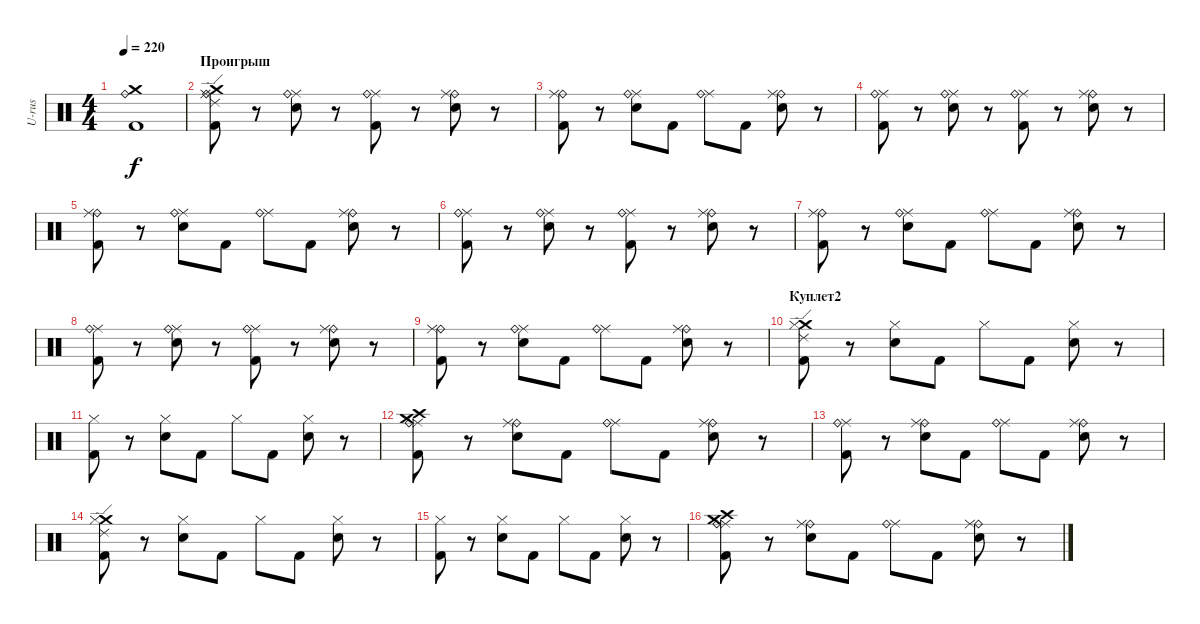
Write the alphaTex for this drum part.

\track ("U-rus" "U-rus") {instrument percussion}
\staff {score}
\articulation defaults
\ts (4 4)
\tempo 220
\clef neutral
\ks c
("Crash medium (hit)" "Ride (bell)" "Kick (hit) 2").1{dy f} |
\section ("" "Проигрыш")
("Ride (edge) 2" "Ride (middle)" "Crash medium (hit)" "Ride (bell)" "Kick (hit) 2").8 r.8 ("Ride (middle)" "Ride (bell)" "Snare (hit) 2").8 r.8 ("Ride (middle)" "Ride (bell)" "Kick (hit) 2").8 r.8 ("Ride (bell)" "Ride (middle)" "Snare (hit) 2").8 r.8 |
("Ride (bell)" "Ride (middle)" "Kick (hit) 2").8 r.8 ("Ride (middle)" "Ride (bell)" "Snare (hit) 2").8 "Kick (hit) 2".8 ("Ride (middle)" "Ride (bell)").8 "Kick (hit) 2".8 ("Ride (bell)" "Ride (middle)" "Snare (hit) 2").8 r.8 |
("Ride (middle)" "Ride (bell)" "Kick (hit) 2").8 r.8 ("Ride (middle)" "Ride (bell)" "Snare (hit) 2").8 r.8 ("Ride (middle)" "Ride (bell)" "Kick (hit) 2").8 r.8 ("Ride (bell)" "Ride (middle)" "Snare (hit) 2").8 r.8 |
("Ride (bell)" "Ride (middle)" "Kick (hit) 2").8 r.8 ("Ride (middle)" "Ride (bell)" "Snare (hit) 2").8 "Kick (hit) 2".8 ("Ride (middle)" "Ride (bell)").8 "Kick (hit) 2".8 ("Ride (bell)" "Ride (middle)" "Snare (hit) 2").8 r.8 |
("Ride (middle)" "Ride (bell)" "Kick (hit) 2").8 r.8 ("Ride (middle)" "Ride (bell)" "Snare (hit) 2").8 r.8 ("Ride (middle)" "Ride (bell)" "Kick (hit) 2").8 r.8 ("Ride (bell)" "Ride (middle)" "Snare (hit) 2").8 r.8 |
("Ride (bell)" "Ride (middle)" "Kick (hit) 2").8 r.8 ("Ride (middle)" "Ride (bell)" "Snare (hit) 2").8 "Kick (hit) 2".8 ("Ride (middle)" "Ride (bell)").8 "Kick (hit) 2".8 ("Ride (bell)" "Ride (middle)" "Snare (hit) 2").8 r.8 |
("Ride (middle)" "Ride (bell)" "Kick (hit) 2").8 r.8 ("Ride (middle)" "Ride (bell)" "Snare (hit) 2").8 r.8 ("Ride (middle)" "Ride (bell)" "Kick (hit) 2").8 r.8 ("Ride (bell)" "Ride (middle)" "Snare (hit) 2").8 r.8 |
("Ride (bell)" "Ride (middle)" "Kick (hit) 2").8 r.8 ("Ride (middle)" "Ride (bell)" "Snare (hit) 2").8 "Kick (hit) 2".8 ("Ride (middle)" "Ride (bell)").8 "Kick (hit) 2".8 ("Ride (bell)" "Ride (middle)" "Snare (hit) 2").8 r.8 |
\section ("" "Куплет2")
("Crash medium (hit)" "Ride (edge) 2" "Hi-Hat (closed)" "Kick (hit) 2").8 r.8 ("Hi-Hat (closed)" "Snare (hit) 2").8 "Kick (hit) 2".8 "Hi-Hat (closed)".8 "Kick (hit) 2".8 ("Hi-Hat (closed)" "Snare (hit) 2").8 r.8 |
("Hi-Hat (closed)" "Kick (hit) 2").8 r.8 ("Hi-Hat (closed)" "Snare (hit) 2").8 "Kick (hit) 2".8 "Hi-Hat (closed)".8 "Kick (hit) 2".8 ("Hi-Hat (closed)" "Snare (hit) 2").8 r.8 |
("Crash medium (hit)" "Crash high (hit)" "Ride (middle)" "Ride (bell)" "Kick (hit) 2").8 r.8 ("Ride (bell)" "Ride (middle)" "Snare (hit) 2").8 "Kick (hit) 2".8 ("Ride (middle)" "Ride (bell)").8 "Kick (hit) 2".8 ("Ride (bell)" "Ride (middle)" "Snare (hit) 2").8 r.8 |
("Ride (middle)" "Ride (bell)" "Kick (hit) 2").8 r.8 ("Ride (bell)" "Ride (middle)" "Snare (hit) 2").8 "Kick (hit) 2".8 ("Ride (middle)" "Ride (bell)").8 "Kick (hit) 2".8 ("Ride (bell)" "Ride (middle)" "Snare (hit) 2").8 r.8 |
("Crash medium (hit)" "Ride (edge) 2" "Hi-Hat (closed)" "Kick (hit) 2").8 r.8 ("Hi-Hat (closed)" "Snare (hit) 2").8 "Kick (hit) 2".8 "Hi-Hat (closed)".8 "Kick (hit) 2".8 ("Hi-Hat (closed)" "Snare (hit) 2").8 r.8 |
("Hi-Hat (closed)" "Kick (hit) 2").8 r.8 ("Hi-Hat (closed)" "Snare (hit) 2").8 "Kick (hit) 2".8 "Hi-Hat (closed)".8 "Kick (hit) 2".8 ("Hi-Hat (closed)" "Snare (hit) 2").8 r.8 |
("Crash medium (hit)" "Crash high (hit)" "Ride (middle)" "Ride (bell)" "Kick (hit) 2").8 r.8 ("Ride (bell)" "Ride (middle)" "Snare (hit) 2").8 "Kick (hit) 2".8 ("Ride (middle)" "Ride (bell)").8 "Kick (hit) 2".8 ("Ride (bell)" "Ride (middle)" "Snare (hit) 2").8 r.8
